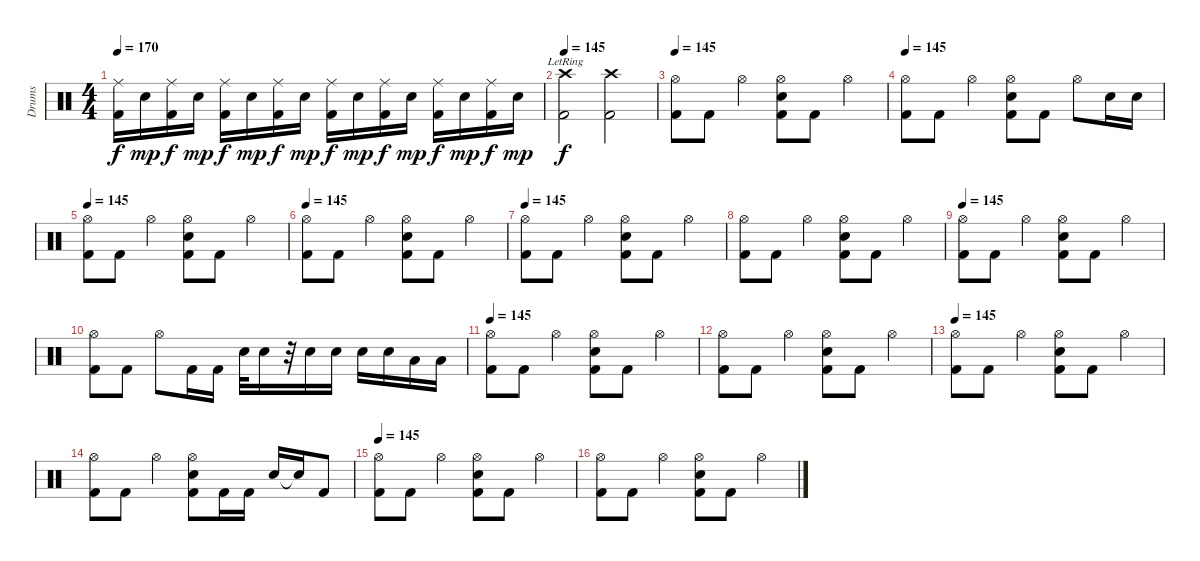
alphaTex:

\track ("Drums" "Drums") {instrument percussion}
\staff {score}
\articulation defaults
\ts (4 4)
\tempo 170
\clef neutral
\ks c
("Ride (middle)" "Kick (hit) 2").16{dy f} "Electric Snare (hit)".16{dy mp} ("Ride (middle)" "Kick (hit) 2").16{dy f} "Electric Snare (hit)".16{dy mp} ("Ride (middle)" "Kick (hit) 2").16{dy f} "Electric Snare (hit)".16{dy mp} ("Ride (middle)" "Kick (hit) 2").16{dy f} "Electric Snare (hit)".16{dy mp} ("Ride (middle)" "Kick (hit) 2").16{dy f} "Electric Snare (hit)".16{dy mp} ("Ride (middle)" "Kick (hit) 2").16{dy f} "Electric Snare (hit)".16{dy mp} ("Ride (middle)" "Kick (hit) 2").16{dy f} "Electric Snare (hit)".16{dy mp} ("Ride (middle)" "Kick (hit) 2").16{dy f} "Electric Snare (hit)".16{dy mp} |
\tempo 145
("Crash high (hit)"{lr} "Kick (hit) 2").2{dy f} ("Crash high (hit)" "Kick (hit) 2").2 |
\tempo 145
("Hi-Hat (open)" "Kick (hit) 2").8 "Kick (hit) 2".8 "Hi-Hat (open)".4 ("Hi-Hat (open)" "Electric Snare (hit)" "Kick (hit) 2").8 "Kick (hit) 2".8 "Hi-Hat (open)".4 |
\tempo 145
("Hi-Hat (open)" "Kick (hit) 2").8 "Kick (hit) 2".8 "Hi-Hat (open)".4 ("Hi-Hat (open)" "Electric Snare (hit)" "Kick (hit) 2").8 "Kick (hit) 2".8 "Hi-Hat (open)".8 "Electric Snare (hit)".16 "Electric Snare (hit)".16 |
\tempo 145
("Hi-Hat (open)" "Kick (hit) 2").8 "Kick (hit) 2".8 "Hi-Hat (open)".4 ("Hi-Hat (open)" "Electric Snare (hit)" "Kick (hit) 2").8 "Kick (hit) 2".8 "Hi-Hat (open)".4 |
\tempo 145
("Hi-Hat (open)" "Kick (hit) 2").8 "Kick (hit) 2".8 "Hi-Hat (open)".4 ("Hi-Hat (open)" "Electric Snare (hit)" "Kick (hit) 2").8 "Kick (hit) 2".8 "Hi-Hat (open)".4 |
\tempo 145
("Hi-Hat (open)" "Kick (hit) 2").8 "Kick (hit) 2".8 "Hi-Hat (open)".4 ("Hi-Hat (open)" "Electric Snare (hit)" "Kick (hit) 2").8 "Kick (hit) 2".8 "Hi-Hat (open)".4 |
("Hi-Hat (open)" "Kick (hit) 2").8 "Kick (hit) 2".8 "Hi-Hat (open)".4 ("Hi-Hat (open)" "Electric Snare (hit)" "Kick (hit) 2").8 "Kick (hit) 2".8 "Hi-Hat (open)".4 |
\tempo 145
("Hi-Hat (open)" "Kick (hit) 2").8 "Kick (hit) 2".8 "Hi-Hat (open)".4 ("Hi-Hat (open)" "Electric Snare (hit)" "Kick (hit) 2").8 "Kick (hit) 2".8 "Hi-Hat (open)".4 |
("Hi-Hat (open)" "Kick (hit) 2").8 "Kick (hit) 2".8 "Hi-Hat (open)".8 "Kick (hit) 2".16 "Kick (hit) 2".16 "Electric Snare (hit)".32 "Electric Snare (hit)".16 r.32 "Electric Snare (hit)".16 "Electric Snare (hit)".16 "Electric Snare (hit)".16 "Electric Snare (hit)".16 "Low Tom (hit)".16 "Low Tom (hit)".16 |
\tempo 145
("Hi-Hat (open)" "Kick (hit) 2").8 "Kick (hit) 2".8 "Hi-Hat (open)".4 ("Hi-Hat (open)" "Electric Snare (hit)" "Kick (hit) 2").8 "Kick (hit) 2".8 "Hi-Hat (open)".4 |
("Hi-Hat (open)" "Kick (hit) 2").8 "Kick (hit) 2".8 "Hi-Hat (open)".4 ("Hi-Hat (open)" "Electric Snare (hit)" "Kick (hit) 2").8 "Kick (hit) 2".8 "Hi-Hat (open)".4 |
\tempo 145
("Hi-Hat (open)" "Kick (hit) 2").8 "Kick (hit) 2".8 "Hi-Hat (open)".4 ("Hi-Hat (open)" "Electric Snare (hit)" "Kick (hit) 2").8 "Kick (hit) 2".8 "Hi-Hat (open)".4 |
("Hi-Hat (open)" "Kick (hit) 2").8 "Kick (hit) 2".8 "Hi-Hat (open)".4 ("Hi-Hat (open)" "Electric Snare (hit)" "Kick (hit) 2").8 "Kick (hit) 2".16 "Kick (hit) 2".16 "Electric Snare (hit)".16 "Snare (hit)"{t}.16 "Kick (hit) 2".8 |
\tempo 145
("Hi-Hat (open)" "Kick (hit) 2").8 "Kick (hit) 2".8 "Hi-Hat (open)".4 ("Hi-Hat (open)" "Electric Snare (hit)" "Kick (hit) 2").8 "Kick (hit) 2".8 "Hi-Hat (open)".4 |
("Hi-Hat (open)" "Kick (hit) 2").8 "Kick (hit) 2".8 "Hi-Hat (open)".4 ("Hi-Hat (open)" "Electric Snare (hit)" "Kick (hit) 2").8 "Kick (hit) 2".8 "Hi-Hat (open)".4
